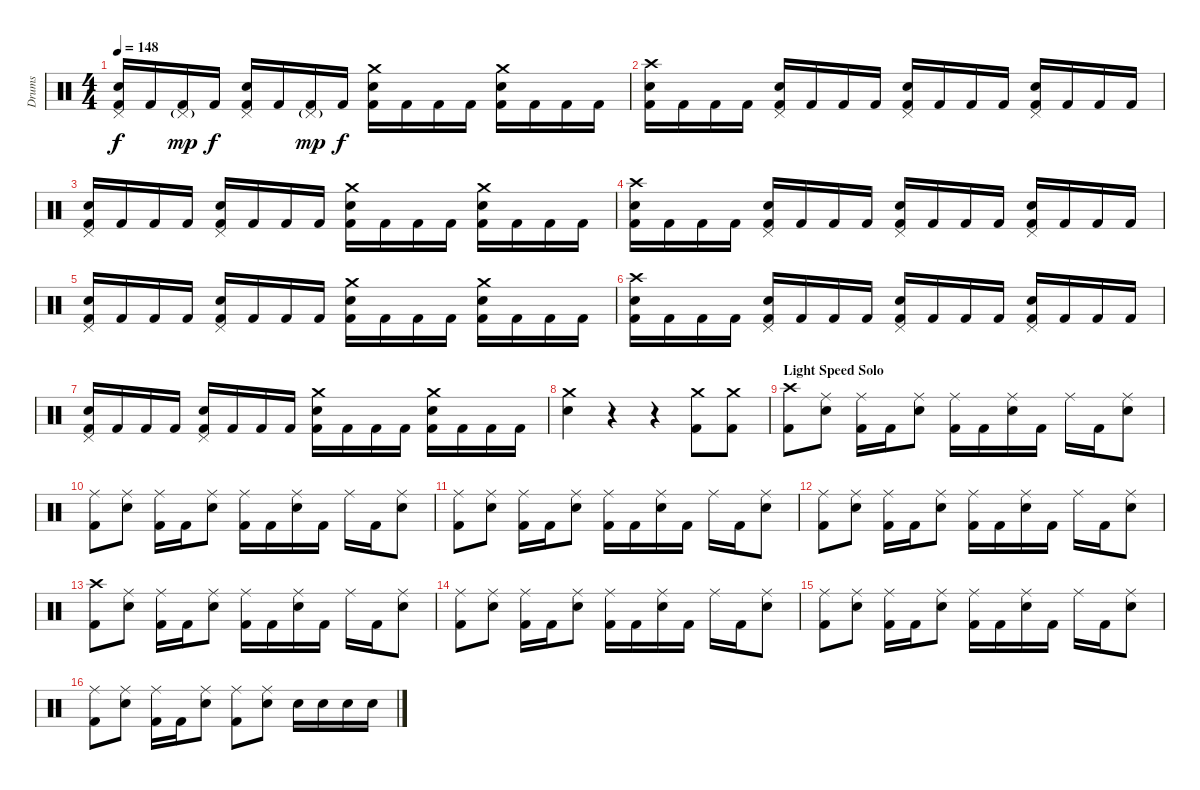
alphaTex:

\track ("Drums" "Drums") {instrument percussion}
\staff {score}
\articulation defaults
\ts (4 4)
\tempo 148
\clef neutral
\ks c
("Pedal Hi-Hat (hit)" "Snare (hit) 2" "Kick (hit) 2").16{dy f} "Kick (hit) 2".16 ("Pedal Hi-Hat (hit)"{g} "Kick (hit) 2").16{dy mp} "Kick (hit) 2".16{dy f} ("Pedal Hi-Hat (hit)" "Snare (hit) 2" "Kick (hit) 2").16 "Kick (hit) 2".16 ("Pedal Hi-Hat (hit)"{g} "Kick (hit) 2").16{dy mp} "Kick (hit) 2".16{dy f} ("Crash medium (hit)" "Snare (hit) 2" "Kick (hit) 2").16 "Kick (hit) 2".16 "Kick (hit) 2".16 "Kick (hit) 2".16 ("Crash medium (hit)" "Snare (hit) 2" "Kick (hit) 2").16 "Kick (hit) 2".16 "Kick (hit) 2".16 "Kick (hit) 2".16 |
("Crash high (hit)" "Snare (hit) 2" "Kick (hit) 2").16 "Kick (hit) 2".16 "Kick (hit) 2".16 "Kick (hit) 2".16 ("Pedal Hi-Hat (hit)" "Snare (hit) 2" "Kick (hit) 2").16 "Kick (hit) 2".16 "Kick (hit) 2".16 "Kick (hit) 2".16 ("Pedal Hi-Hat (hit)" "Snare (hit) 2" "Kick (hit) 2").16 "Kick (hit) 2".16 "Kick (hit) 2".16 "Kick (hit) 2".16 ("Pedal Hi-Hat (hit)" "Snare (hit) 2" "Kick (hit) 2").16 "Kick (hit) 2".16 "Kick (hit) 2".16 "Kick (hit) 2".16 |
("Pedal Hi-Hat (hit)" "Snare (hit) 2" "Kick (hit) 2").16 "Kick (hit) 2".16 "Kick (hit) 2".16 "Kick (hit) 2".16 ("Pedal Hi-Hat (hit)" "Snare (hit) 2" "Kick (hit) 2").16 "Kick (hit) 2".16 "Kick (hit) 2".16 "Kick (hit) 2".16 ("Crash medium (hit)" "Snare (hit) 2" "Kick (hit) 2").16 "Kick (hit) 2".16 "Kick (hit) 2".16 "Kick (hit) 2".16 ("Crash medium (hit)" "Snare (hit) 2" "Kick (hit) 2").16 "Kick (hit) 2".16 "Kick (hit) 2".16 "Kick (hit) 2".16 |
("Crash high (hit)" "Snare (hit) 2" "Kick (hit) 2").16 "Kick (hit) 2".16 "Kick (hit) 2".16 "Kick (hit) 2".16 ("Pedal Hi-Hat (hit)" "Snare (hit) 2" "Kick (hit) 2").16 "Kick (hit) 2".16 "Kick (hit) 2".16 "Kick (hit) 2".16 ("Pedal Hi-Hat (hit)" "Snare (hit) 2" "Kick (hit) 2").16 "Kick (hit) 2".16 "Kick (hit) 2".16 "Kick (hit) 2".16 ("Pedal Hi-Hat (hit)" "Snare (hit) 2" "Kick (hit) 2").16 "Kick (hit) 2".16 "Kick (hit) 2".16 "Kick (hit) 2".16 |
("Pedal Hi-Hat (hit)" "Snare (hit) 2" "Kick (hit) 2").16 "Kick (hit) 2".16 "Kick (hit) 2".16 "Kick (hit) 2".16 ("Pedal Hi-Hat (hit)" "Snare (hit) 2" "Kick (hit) 2").16 "Kick (hit) 2".16 "Kick (hit) 2".16 "Kick (hit) 2".16 ("Crash medium (hit)" "Snare (hit) 2" "Kick (hit) 2").16 "Kick (hit) 2".16 "Kick (hit) 2".16 "Kick (hit) 2".16 ("Crash medium (hit)" "Snare (hit) 2" "Kick (hit) 2").16 "Kick (hit) 2".16 "Kick (hit) 2".16 "Kick (hit) 2".16 |
("Crash high (hit)" "Snare (hit) 2" "Kick (hit) 2").16 "Kick (hit) 2".16 "Kick (hit) 2".16 "Kick (hit) 2".16 ("Pedal Hi-Hat (hit)" "Snare (hit) 2" "Kick (hit) 2").16 "Kick (hit) 2".16 "Kick (hit) 2".16 "Kick (hit) 2".16 ("Pedal Hi-Hat (hit)" "Snare (hit) 2" "Kick (hit) 2").16 "Kick (hit) 2".16 "Kick (hit) 2".16 "Kick (hit) 2".16 ("Pedal Hi-Hat (hit)" "Snare (hit) 2" "Kick (hit) 2").16 "Kick (hit) 2".16 "Kick (hit) 2".16 "Kick (hit) 2".16 |
("Pedal Hi-Hat (hit)" "Snare (hit) 2" "Kick (hit) 2").16 "Kick (hit) 2".16 "Kick (hit) 2".16 "Kick (hit) 2".16 ("Pedal Hi-Hat (hit)" "Snare (hit) 2" "Kick (hit) 2").16 "Kick (hit) 2".16 "Kick (hit) 2".16 "Kick (hit) 2".16 ("Crash medium (hit)" "Snare (hit) 2" "Kick (hit) 2").16 "Kick (hit) 2".16 "Kick (hit) 2".16 "Kick (hit) 2".16 ("Crash medium (hit)" "Snare (hit) 2" "Kick (hit) 2").16 "Kick (hit) 2".16 "Kick (hit) 2".16 "Kick (hit) 2".16 |
("Crash medium (hit)" "Snare (hit) 2").4 r.4 r.4 ("Crash medium (hit)" "Kick (hit) 2").8 ("Crash medium (hit)" "Kick (hit) 2").8 |
\section ("" "Light Speed Solo")
("Crash high (hit)" "Kick (hit) 2").8 ("Ride (middle)" "Snare (hit) 2").8 ("Ride (middle)" "Kick (hit) 2").16 "Kick (hit) 2".16 ("Ride (middle)" "Snare (hit) 2").8 ("Ride (middle)" "Kick (hit) 2").16 "Kick (hit) 2".16 ("Ride (middle)" "Snare (hit) 2").16 "Kick (hit) 2".16 "Ride (middle)".16 "Kick (hit) 2".16 ("Ride (middle)" "Snare (hit) 2").8 |
("Ride (middle)" "Kick (hit) 2").8 ("Ride (middle)" "Snare (hit) 2").8 ("Ride (middle)" "Kick (hit) 2").16 "Kick (hit) 2".16 ("Ride (middle)" "Snare (hit) 2").8 ("Ride (middle)" "Kick (hit) 2").16 "Kick (hit) 2".16 ("Ride (middle)" "Snare (hit) 2").16 "Kick (hit) 2".16 "Ride (middle)".16 "Kick (hit) 2".16 ("Ride (middle)" "Snare (hit) 2").8 |
("Ride (middle)" "Kick (hit) 2").8 ("Ride (middle)" "Snare (hit) 2").8 ("Ride (middle)" "Kick (hit) 2").16 "Kick (hit) 2".16 ("Ride (middle)" "Snare (hit) 2").8 ("Ride (middle)" "Kick (hit) 2").16 "Kick (hit) 2".16 ("Ride (middle)" "Snare (hit) 2").16 "Kick (hit) 2".16 "Ride (middle)".16 "Kick (hit) 2".16 ("Ride (middle)" "Snare (hit) 2").8 |
("Ride (middle)" "Kick (hit) 2").8 ("Ride (middle)" "Snare (hit) 2").8 ("Ride (middle)" "Kick (hit) 2").16 "Kick (hit) 2".16 ("Ride (middle)" "Snare (hit) 2").8 ("Ride (middle)" "Kick (hit) 2").16 "Kick (hit) 2".16 ("Ride (middle)" "Snare (hit) 2").16 "Kick (hit) 2".16 "Ride (middle)".16 "Kick (hit) 2".16 ("Ride (middle)" "Snare (hit) 2").8 |
("Crash high (hit)" "Kick (hit) 2").8 ("Ride (middle)" "Snare (hit) 2").8 ("Ride (middle)" "Kick (hit) 2").16 "Kick (hit) 2".16 ("Ride (middle)" "Snare (hit) 2").8 ("Ride (middle)" "Kick (hit) 2").16 "Kick (hit) 2".16 ("Ride (middle)" "Snare (hit) 2").16 "Kick (hit) 2".16 "Ride (middle)".16 "Kick (hit) 2".16 ("Ride (middle)" "Snare (hit) 2").8 |
("Ride (middle)" "Kick (hit) 2").8 ("Ride (middle)" "Snare (hit) 2").8 ("Ride (middle)" "Kick (hit) 2").16 "Kick (hit) 2".16 ("Ride (middle)" "Snare (hit) 2").8 ("Ride (middle)" "Kick (hit) 2").16 "Kick (hit) 2".16 ("Ride (middle)" "Snare (hit) 2").16 "Kick (hit) 2".16 "Ride (middle)".16 "Kick (hit) 2".16 ("Ride (middle)" "Snare (hit) 2").8 |
("Ride (middle)" "Kick (hit) 2").8 ("Ride (middle)" "Snare (hit) 2").8 ("Ride (middle)" "Kick (hit) 2").16 "Kick (hit) 2".16 ("Ride (middle)" "Snare (hit) 2").8 ("Ride (middle)" "Kick (hit) 2").16 "Kick (hit) 2".16 ("Ride (middle)" "Snare (hit) 2").16 "Kick (hit) 2".16 "Ride (middle)".16 "Kick (hit) 2".16 ("Ride (middle)" "Snare (hit) 2").8 |
("Ride (middle)" "Kick (hit) 2").8 ("Ride (middle)" "Snare (hit) 2").8 ("Ride (middle)" "Kick (hit) 2").16 "Kick (hit) 2".16 ("Ride (middle)" "Snare (hit) 2").8 ("Ride (middle)" "Kick (hit) 2").8 ("Ride (middle)" "Snare (hit) 2").8 "Snare (hit) 2".16 "Snare (hit) 2".16 "Snare (hit) 2".16 "Snare (hit) 2".16
